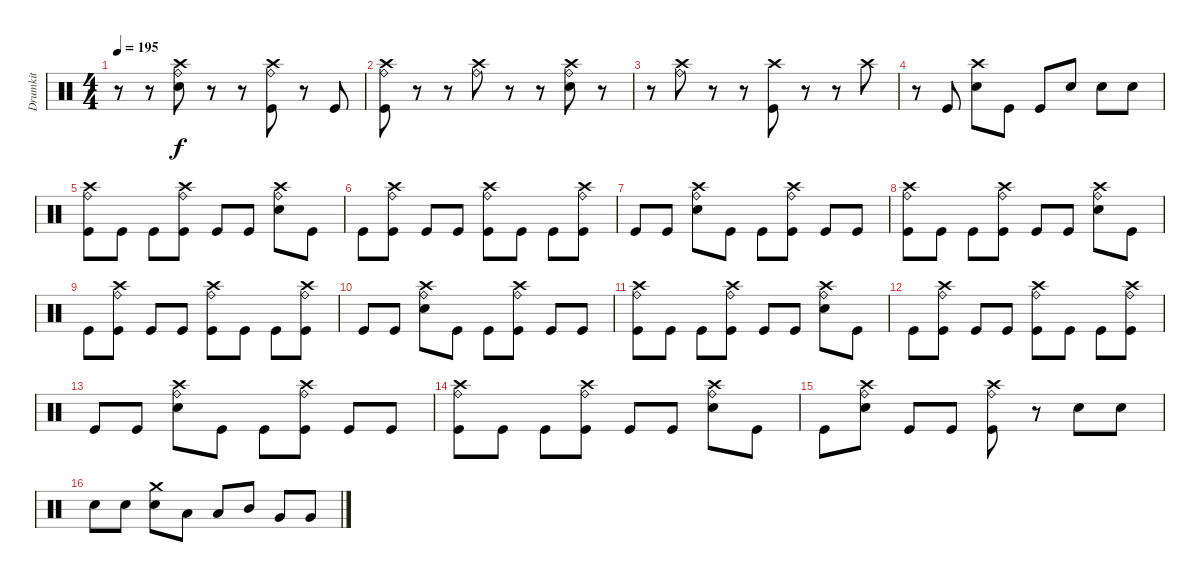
\track ("Drumkit" "Drumkit") {instrument percussion}
\staff {score}
\articulation defaults
\ts (4 4)
\tempo 195
\clef neutral
\ks c
r.8{dy f} r.8 ("Snare (hit) 2" "Ride (bell)" "Crash high (hit)").8 r.8 r.8 ("Kick (hit)" "Ride (bell)" "Crash high (hit)").8 r.8 "Kick (hit)".8 |
("Kick (hit)" "Ride (bell)" "Crash high (hit)").8 r.8 r.8 ("Ride (bell)" "Crash high (hit)").8 r.8 r.8 ("Snare (hit) 2" "Ride (bell)" "Crash high (hit)").8 r.8 |
r.8 ("Ride (bell)" "Crash high (hit)").8 r.8 r.8 ("Kick (hit)" "Crash high (hit)").8 r.8 r.8 "Crash high (hit)".8 |
r.8 "Kick (hit)".8 ("Snare (hit) 2" "Crash high (hit)").8 "Kick (hit)".8 "Kick (hit)".8 "Snare (hit) 2".8 "Snare (hit) 2".8 "Snare (hit) 2".8 |
("Kick (hit)" "Crash high (hit)" "Ride (bell)").8 "Kick (hit)".8 "Kick (hit)".8 ("Kick (hit)" "Crash high (hit)" "Ride (bell)").8 "Kick (hit)".8 "Kick (hit)".8 ("Snare (hit) 2" "Crash high (hit)" "Ride (bell)").8 "Kick (hit)".8 |
"Kick (hit)".8 ("Kick (hit)" "Crash high (hit)" "Ride (bell)").8 "Kick (hit)".8 "Kick (hit)".8 ("Kick (hit)" "Crash high (hit)" "Ride (bell)").8 "Kick (hit)".8 "Kick (hit)".8 ("Kick (hit)" "Crash high (hit)" "Ride (bell)").8 |
"Kick (hit)".8 "Kick (hit)".8 ("Snare (hit) 2" "Crash high (hit)" "Ride (bell)").8 "Kick (hit)".8 "Kick (hit)".8 ("Kick (hit)" "Crash high (hit)" "Ride (bell)").8 "Kick (hit)".8 "Kick (hit)".8 |
("Kick (hit)" "Crash high (hit)" "Ride (bell)").8 "Kick (hit)".8 "Kick (hit)".8 ("Kick (hit)" "Crash high (hit)" "Ride (bell)").8 "Kick (hit)".8 "Kick (hit)".8 ("Snare (hit) 2" "Crash high (hit)" "Ride (bell)").8 "Kick (hit)".8 |
"Kick (hit)".8 ("Kick (hit)" "Crash high (hit)" "Ride (bell)").8 "Kick (hit)".8 "Kick (hit)".8 ("Kick (hit)" "Crash high (hit)" "Ride (bell)").8 "Kick (hit)".8 "Kick (hit)".8 ("Kick (hit)" "Crash high (hit)" "Ride (bell)").8 |
"Kick (hit)".8 "Kick (hit)".8 ("Snare (hit) 2" "Crash high (hit)" "Ride (bell)").8 "Kick (hit)".8 "Kick (hit)".8 ("Kick (hit)" "Crash high (hit)" "Ride (bell)").8 "Kick (hit)".8 "Kick (hit)".8 |
("Kick (hit)" "Crash high (hit)" "Ride (bell)").8 "Kick (hit)".8 "Kick (hit)".8 ("Kick (hit)" "Crash high (hit)" "Ride (bell)").8 "Kick (hit)".8 "Kick (hit)".8 ("Snare (hit) 2" "Crash high (hit)" "Ride (bell)").8 "Kick (hit)".8 |
"Kick (hit)".8 ("Kick (hit)" "Crash high (hit)" "Ride (bell)").8 "Kick (hit)".8 "Kick (hit)".8 ("Kick (hit)" "Crash high (hit)" "Ride (bell)").8 "Kick (hit)".8 "Kick (hit)".8 ("Kick (hit)" "Crash high (hit)" "Ride (bell)").8 |
"Kick (hit)".8 "Kick (hit)".8 ("Snare (hit) 2" "Crash high (hit)" "Ride (bell)").8 "Kick (hit)".8 "Kick (hit)".8 ("Kick (hit)" "Crash high (hit)" "Ride (bell)").8 "Kick (hit)".8 "Kick (hit)".8 |
("Kick (hit)" "Crash high (hit)" "Ride (bell)").8 "Kick (hit)".8 "Kick (hit)".8 ("Kick (hit)" "Crash high (hit)" "Ride (bell)").8 "Kick (hit)".8 "Kick (hit)".8 ("Snare (hit) 2" "Crash high (hit)" "Ride (bell)").8 "Kick (hit)".8 |
"Kick (hit)".8 ("Snare (hit) 2" "Crash high (hit)" "Ride (bell)").8 "Kick (hit)".8 "Kick (hit)".8 ("Kick (hit)" "Crash high (hit)" "Ride (bell)").8 r.8 "Snare (hit) 2".8 "Snare (hit) 2".8 |
"Snare (hit) 2".8 "Snare (hit) 2".8 ("Snare (hit) 2" "Crash medium (hit)").8 "Low Floor Tom (hit)".8 "Low Floor Tom (hit)".8 "Mid Tom (hit)".8 "Very Low Tom (hit)".8 "Very Low Tom (hit)".8
